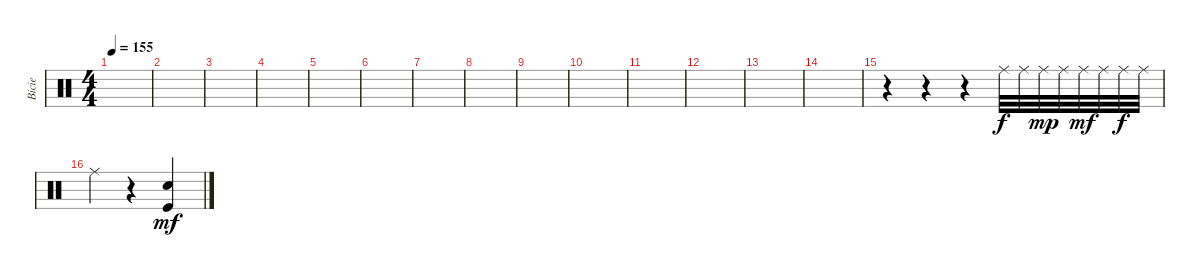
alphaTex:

\track ("Bicie" "Bicie") {instrument percussion}
\staff {score}
\articulation defaults
\ts (4 4)
\tempo 155
\clef neutral
\ks c
|
|
|
|
|
|
|
|
|
|
|
|
|
|
r.4 r.4 r.4 "Ride (middle)".32 "Ride (middle)".32 "Ride (middle)".32{dy mp} "Ride (middle)".32 "Ride (middle)".32{dy mf} "Ride (middle)".32 "Ride (middle)".32{dy f} "Ride (middle)".32 |
"Ride (middle)".4 r.4 ("Snare (hit) 2" "Kick (hit)").4{dy mf}
